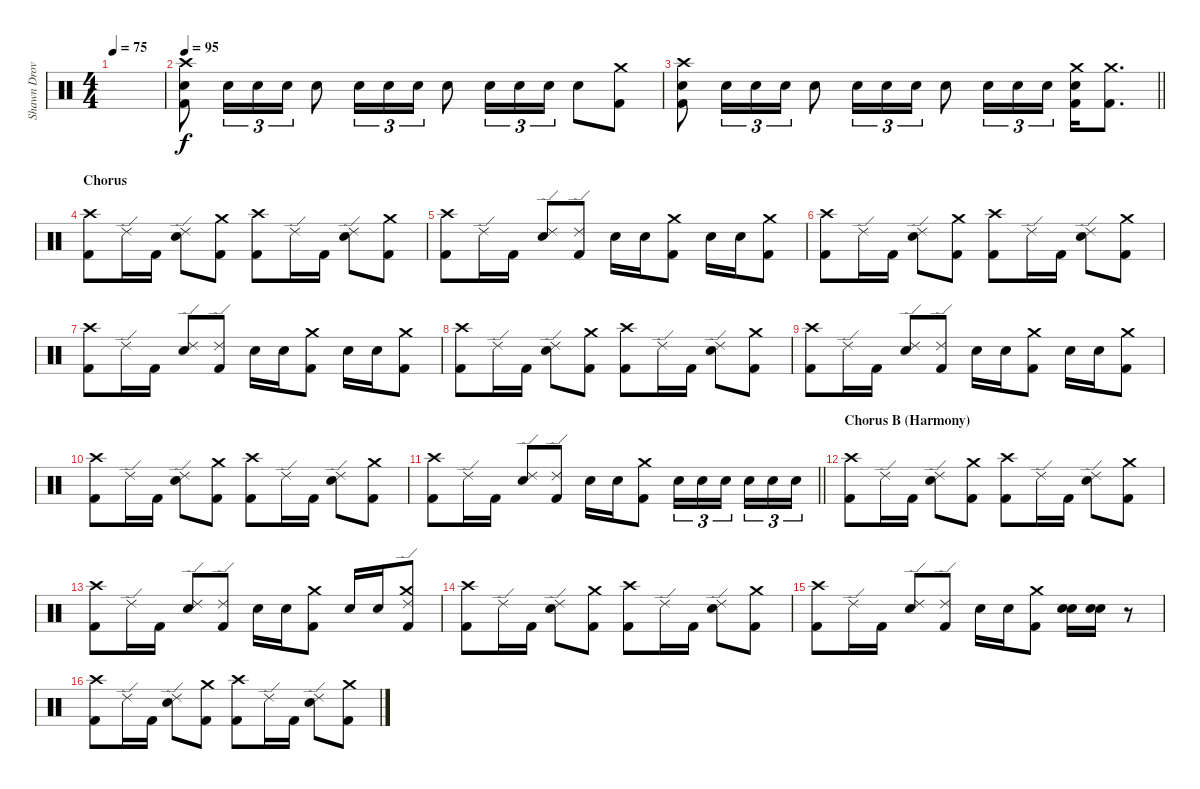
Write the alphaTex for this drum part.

\track ("Shawn Drover" "Shawn Drov") {instrument percussion}
\staff {score}
\articulation defaults
\ts (4 4)
\tempo 75
\clef neutral
\ks c
|
\tempo 95
("Crash high (hit)" "Electric Snare (hit)" "Kick (hit) 2").8 "Electric Snare (hit)".16{tu (3 2)} "Electric Snare (hit)".16{tu (3 2)} "Electric Snare (hit)".16{tu (3 2)} "Electric Snare (hit)".8 "Electric Snare (hit)".16{tu (3 2)} "Electric Snare (hit)".16{tu (3 2)} "Electric Snare (hit)".16{tu (3 2)} "Electric Snare (hit)".8 "Electric Snare (hit)".16{tu (3 2)} "Electric Snare (hit)".16{tu (3 2)} "Electric Snare (hit)".16{tu (3 2)} "Electric Snare (hit)".8 ("Crash medium (hit)" "Kick (hit) 2").8 |
\barLineRight lightlight
("Crash high (hit)" "Electric Snare (hit)" "Kick (hit) 2").8 "Electric Snare (hit)".16{tu (3 2)} "Electric Snare (hit)".16{tu (3 2)} "Electric Snare (hit)".16{tu (3 2)} "Electric Snare (hit)".8 "Electric Snare (hit)".16{tu (3 2)} "Electric Snare (hit)".16{tu (3 2)} "Electric Snare (hit)".16{tu (3 2)} "Electric Snare (hit)".8 "Electric Snare (hit)".16{tu (3 2)} "Electric Snare (hit)".16{tu (3 2)} "Electric Snare (hit)".16{tu (3 2)} ("Crash medium (hit)" "Electric Snare (hit)" "Kick (hit) 2").16 ("Crash medium (hit)" "Kick (hit) 2").8{d} |
\section ("" "Chorus")
("Crash high (hit)" "Kick (hit) 2").8 "Ride (edge) 2".16 "Kick (hit) 2".16 ("Ride (edge) 2" "Electric Snare (hit)").8 ("Crash medium (hit)" "Kick (hit) 2").8 ("Crash high (hit)" "Kick (hit) 2").8 "Ride (edge) 2".16 "Kick (hit) 2".16 ("Ride (edge) 2" "Electric Snare (hit)").8 ("Crash medium (hit)" "Kick (hit) 2").8 |
("Crash high (hit)" "Kick (hit) 2").8 "Ride (edge) 2".16 "Kick (hit) 2".16 ("Ride (edge) 2" "Electric Snare (hit)").8 ("Ride (edge) 2" "Kick (hit) 2").8 "Electric Snare (hit)".16 "Electric Snare (hit)".16 ("Crash medium (hit)" "Kick (hit) 2").8 "Electric Snare (hit)".16 "Electric Snare (hit)".16 ("Crash medium (hit)" "Kick (hit) 2").8 |
("Crash high (hit)" "Kick (hit) 2").8 "Ride (edge) 2".16 "Kick (hit) 2".16 ("Ride (edge) 2" "Electric Snare (hit)").8 ("Crash medium (hit)" "Kick (hit) 2").8 ("Crash high (hit)" "Kick (hit) 2").8 "Ride (edge) 2".16 "Kick (hit) 2".16 ("Ride (edge) 2" "Electric Snare (hit)").8 ("Crash medium (hit)" "Kick (hit) 2").8 |
("Crash high (hit)" "Kick (hit) 2").8 "Ride (edge) 2".16 "Kick (hit) 2".16 ("Ride (edge) 2" "Electric Snare (hit)").8 ("Ride (edge) 2" "Kick (hit) 2").8 "Electric Snare (hit)".16 "Electric Snare (hit)".16 ("Crash medium (hit)" "Kick (hit) 2").8 "Electric Snare (hit)".16 "Electric Snare (hit)".16 ("Crash medium (hit)" "Kick (hit) 2").8 |
("Crash high (hit)" "Kick (hit) 2").8 "Ride (edge) 2".16 "Kick (hit) 2".16 ("Ride (edge) 2" "Electric Snare (hit)").8 ("Crash medium (hit)" "Kick (hit) 2").8 ("Crash high (hit)" "Kick (hit) 2").8 "Ride (edge) 2".16 "Kick (hit) 2".16 ("Ride (edge) 2" "Electric Snare (hit)").8 ("Crash medium (hit)" "Kick (hit) 2").8 |
("Crash high (hit)" "Kick (hit) 2").8 "Ride (edge) 2".16 "Kick (hit) 2".16 ("Ride (edge) 2" "Electric Snare (hit)").8 ("Ride (edge) 2" "Kick (hit) 2").8 "Electric Snare (hit)".16 "Electric Snare (hit)".16 ("Crash medium (hit)" "Kick (hit) 2").8 "Electric Snare (hit)".16 "Electric Snare (hit)".16 ("Crash medium (hit)" "Kick (hit) 2").8 |
("Crash high (hit)" "Kick (hit) 2").8 "Ride (edge) 2".16 "Kick (hit) 2".16 ("Ride (edge) 2" "Electric Snare (hit)").8 ("Crash medium (hit)" "Kick (hit) 2").8 ("Crash high (hit)" "Kick (hit) 2").8 "Ride (edge) 2".16 "Kick (hit) 2".16 ("Ride (edge) 2" "Electric Snare (hit)").8 ("Crash medium (hit)" "Kick (hit) 2").8 |
\barLineRight lightlight
("Crash high (hit)" "Kick (hit) 2").8 "Ride (edge) 2".16 "Kick (hit) 2".16 ("Ride (edge) 2" "Electric Snare (hit)").8 ("Ride (edge) 2" "Kick (hit) 2").8 "Electric Snare (hit)".16 "Electric Snare (hit)".16 ("Crash medium (hit)" "Kick (hit) 2").8 "Electric Snare (hit)".16{tu (3 2)} "Electric Snare (hit)".16{tu (3 2)} "Electric Snare (hit)".16{tu (3 2) beam splitsecondary} "Electric Snare (hit)".16{tu (3 2)} "Electric Snare (hit)".16{tu (3 2)} "Electric Snare (hit)".16{tu (3 2)} |
\section ("" "Chorus B (Harmony)")
("Crash high (hit)" "Kick (hit) 2").8 "Ride (edge) 2".16 "Kick (hit) 2".16 ("Ride (edge) 2" "Electric Snare (hit)").8 ("Crash medium (hit)" "Kick (hit) 2").8 ("Crash high (hit)" "Kick (hit) 2").8 "Ride (edge) 2".16 "Kick (hit) 2".16 ("Ride (edge) 2" "Electric Snare (hit)").8 ("Crash medium (hit)" "Kick (hit) 2").8 |
("Crash high (hit)" "Kick (hit) 2").8 "Ride (edge) 2".16 "Kick (hit) 2".16 ("Ride (edge) 2" "Electric Snare (hit)").8 ("Ride (edge) 2" "Kick (hit) 2").8 "Electric Snare (hit)".16 "Electric Snare (hit)".16 ("Crash medium (hit)" "Kick (hit) 2").8 "Electric Snare (hit)".16 "Electric Snare (hit)".16 ("Crash medium (hit)" "Ride (edge) 2" "Kick (hit) 2").8 |
("Crash high (hit)" "Kick (hit) 2").8 "Ride (edge) 2".16 "Kick (hit) 2".16 ("Ride (edge) 2" "Electric Snare (hit)").8 ("Crash medium (hit)" "Kick (hit) 2").8 ("Crash high (hit)" "Kick (hit) 2").8 "Ride (edge) 2".16 "Kick (hit) 2".16 ("Ride (edge) 2" "Electric Snare (hit)").8 ("Crash medium (hit)" "Kick (hit) 2").8 |
("Crash high (hit)" "Kick (hit) 2").8 "Ride (edge) 2".16 "Kick (hit) 2".16 ("Ride (edge) 2" "Electric Snare (hit)").8 ("Ride (edge) 2" "Kick (hit) 2").8 "Electric Snare (hit)".16 "Electric Snare (hit)".16 ("Crash medium (hit)" "Kick (hit) 2").8 ("Electric Snare (hit)" "Electric Snare (hit)").16 ("Electric Snare (hit)" "Electric Snare (hit)").16 r.8 |
("Crash high (hit)" "Kick (hit) 2").8 "Ride (edge) 2".16 "Kick (hit) 2".16 ("Ride (edge) 2" "Electric Snare (hit)").8 ("Crash medium (hit)" "Kick (hit) 2").8 ("Crash high (hit)" "Kick (hit) 2").8 "Ride (edge) 2".16 "Kick (hit) 2".16 ("Ride (edge) 2" "Electric Snare (hit)").8 ("Crash medium (hit)" "Kick (hit) 2").8
